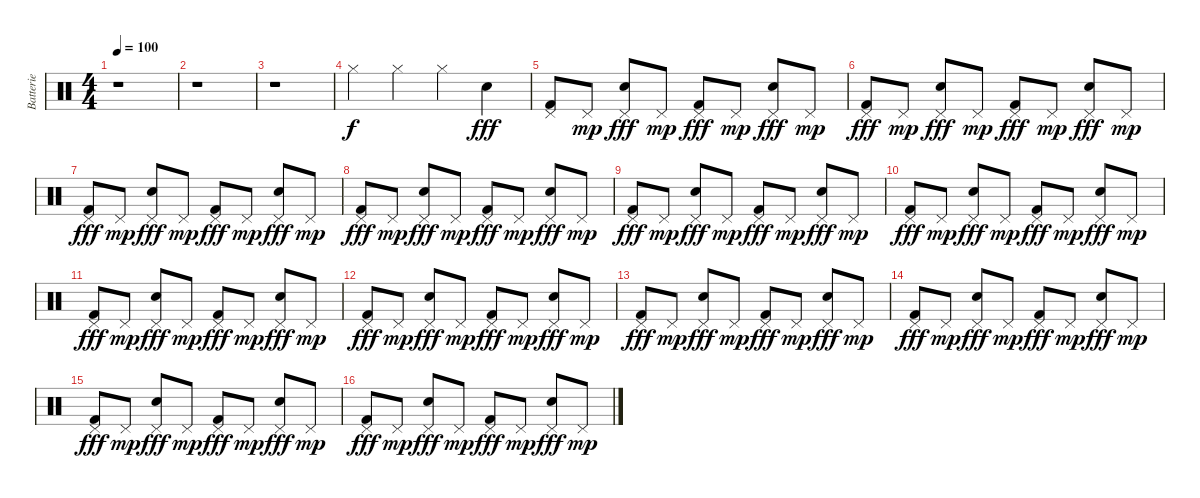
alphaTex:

\track ("Batterie" "Batterie") {instrument percussion}
\staff {score}
\articulation defaults
\ts (4 4)
\tempo 100
\clef neutral
\ks c
r.1{dy f} |
r.1 |
r.1 |
"Hi-Hat (closed)".4 "Hi-Hat (closed)".4 "Hi-Hat (closed)".4 "Electric Snare (hit)".4{dy fff} |
("Pedal Hi-Hat (hit)" "Kick (hit) 2").8 "Pedal Hi-Hat (hit)".8{dy mp} ("Pedal Hi-Hat (hit)" "Electric Snare (hit)").8{dy fff} "Pedal Hi-Hat (hit)".8{dy mp} ("Pedal Hi-Hat (hit)" "Kick (hit) 2").8{dy fff} "Pedal Hi-Hat (hit)".8{dy mp} ("Pedal Hi-Hat (hit)" "Electric Snare (hit)").8{dy fff} "Pedal Hi-Hat (hit)".8{dy mp} |
("Pedal Hi-Hat (hit)" "Kick (hit) 2").8{dy fff} "Pedal Hi-Hat (hit)".8{dy mp} ("Pedal Hi-Hat (hit)" "Electric Snare (hit)").8{dy fff} "Pedal Hi-Hat (hit)".8{dy mp} ("Pedal Hi-Hat (hit)" "Kick (hit) 2").8{dy fff} "Pedal Hi-Hat (hit)".8{dy mp} ("Pedal Hi-Hat (hit)" "Electric Snare (hit)").8{dy fff} "Pedal Hi-Hat (hit)".8{dy mp} |
("Pedal Hi-Hat (hit)" "Kick (hit) 2").8{dy fff} "Pedal Hi-Hat (hit)".8{dy mp} ("Pedal Hi-Hat (hit)" "Electric Snare (hit)").8{dy fff} "Pedal Hi-Hat (hit)".8{dy mp} ("Pedal Hi-Hat (hit)" "Kick (hit) 2").8{dy fff} "Pedal Hi-Hat (hit)".8{dy mp} ("Pedal Hi-Hat (hit)" "Electric Snare (hit)").8{dy fff} "Pedal Hi-Hat (hit)".8{dy mp} |
("Pedal Hi-Hat (hit)" "Kick (hit) 2").8{dy fff} "Pedal Hi-Hat (hit)".8{dy mp} ("Pedal Hi-Hat (hit)" "Electric Snare (hit)").8{dy fff} "Pedal Hi-Hat (hit)".8{dy mp} ("Pedal Hi-Hat (hit)" "Kick (hit) 2").8{dy fff} "Pedal Hi-Hat (hit)".8{dy mp} ("Pedal Hi-Hat (hit)" "Electric Snare (hit)").8{dy fff} "Pedal Hi-Hat (hit)".8{dy mp} |
("Pedal Hi-Hat (hit)" "Kick (hit) 2").8{dy fff} "Pedal Hi-Hat (hit)".8{dy mp} ("Pedal Hi-Hat (hit)" "Electric Snare (hit)").8{dy fff} "Pedal Hi-Hat (hit)".8{dy mp} ("Pedal Hi-Hat (hit)" "Kick (hit) 2").8{dy fff} "Pedal Hi-Hat (hit)".8{dy mp} ("Pedal Hi-Hat (hit)" "Electric Snare (hit)").8{dy fff} "Pedal Hi-Hat (hit)".8{dy mp} |
("Pedal Hi-Hat (hit)" "Kick (hit) 2").8{dy fff} "Pedal Hi-Hat (hit)".8{dy mp} ("Pedal Hi-Hat (hit)" "Electric Snare (hit)").8{dy fff} "Pedal Hi-Hat (hit)".8{dy mp} ("Pedal Hi-Hat (hit)" "Kick (hit) 2").8{dy fff} "Pedal Hi-Hat (hit)".8{dy mp} ("Pedal Hi-Hat (hit)" "Electric Snare (hit)").8{dy fff} "Pedal Hi-Hat (hit)".8{dy mp} |
("Pedal Hi-Hat (hit)" "Kick (hit) 2").8{dy fff} "Pedal Hi-Hat (hit)".8{dy mp} ("Pedal Hi-Hat (hit)" "Electric Snare (hit)").8{dy fff} "Pedal Hi-Hat (hit)".8{dy mp} ("Pedal Hi-Hat (hit)" "Kick (hit) 2").8{dy fff} "Pedal Hi-Hat (hit)".8{dy mp} ("Pedal Hi-Hat (hit)" "Electric Snare (hit)").8{dy fff} "Pedal Hi-Hat (hit)".8{dy mp} |
("Pedal Hi-Hat (hit)" "Kick (hit) 2").8{dy fff} "Pedal Hi-Hat (hit)".8{dy mp} ("Pedal Hi-Hat (hit)" "Electric Snare (hit)").8{dy fff} "Pedal Hi-Hat (hit)".8{dy mp} ("Pedal Hi-Hat (hit)" "Kick (hit) 2").8{dy fff} "Pedal Hi-Hat (hit)".8{dy mp} ("Pedal Hi-Hat (hit)" "Electric Snare (hit)").8{dy fff} "Pedal Hi-Hat (hit)".8{dy mp} |
("Pedal Hi-Hat (hit)" "Kick (hit) 2").8{dy fff} "Pedal Hi-Hat (hit)".8{dy mp} ("Pedal Hi-Hat (hit)" "Electric Snare (hit)").8{dy fff} "Pedal Hi-Hat (hit)".8{dy mp} ("Pedal Hi-Hat (hit)" "Kick (hit) 2").8{dy fff} "Pedal Hi-Hat (hit)".8{dy mp} ("Pedal Hi-Hat (hit)" "Electric Snare (hit)").8{dy fff} "Pedal Hi-Hat (hit)".8{dy mp} |
("Pedal Hi-Hat (hit)" "Kick (hit) 2").8{dy fff} "Pedal Hi-Hat (hit)".8{dy mp} ("Pedal Hi-Hat (hit)" "Electric Snare (hit)").8{dy fff} "Pedal Hi-Hat (hit)".8{dy mp} ("Pedal Hi-Hat (hit)" "Kick (hit) 2").8{dy fff} "Pedal Hi-Hat (hit)".8{dy mp} ("Pedal Hi-Hat (hit)" "Electric Snare (hit)").8{dy fff} "Pedal Hi-Hat (hit)".8{dy mp} |
("Pedal Hi-Hat (hit)" "Kick (hit) 2").8{dy fff} "Pedal Hi-Hat (hit)".8{dy mp} ("Pedal Hi-Hat (hit)" "Electric Snare (hit)").8{dy fff} "Pedal Hi-Hat (hit)".8{dy mp} ("Pedal Hi-Hat (hit)" "Kick (hit) 2").8{dy fff} "Pedal Hi-Hat (hit)".8{dy mp} ("Pedal Hi-Hat (hit)" "Electric Snare (hit)").8{dy fff} "Pedal Hi-Hat (hit)".8{dy mp} |
("Pedal Hi-Hat (hit)" "Kick (hit) 2").8{dy fff} "Pedal Hi-Hat (hit)".8{dy mp} ("Pedal Hi-Hat (hit)" "Electric Snare (hit)").8{dy fff} "Pedal Hi-Hat (hit)".8{dy mp} ("Pedal Hi-Hat (hit)" "Kick (hit) 2").8{dy fff} "Pedal Hi-Hat (hit)".8{dy mp} ("Pedal Hi-Hat (hit)" "Electric Snare (hit)").8{dy fff} "Pedal Hi-Hat (hit)".8{dy mp}
